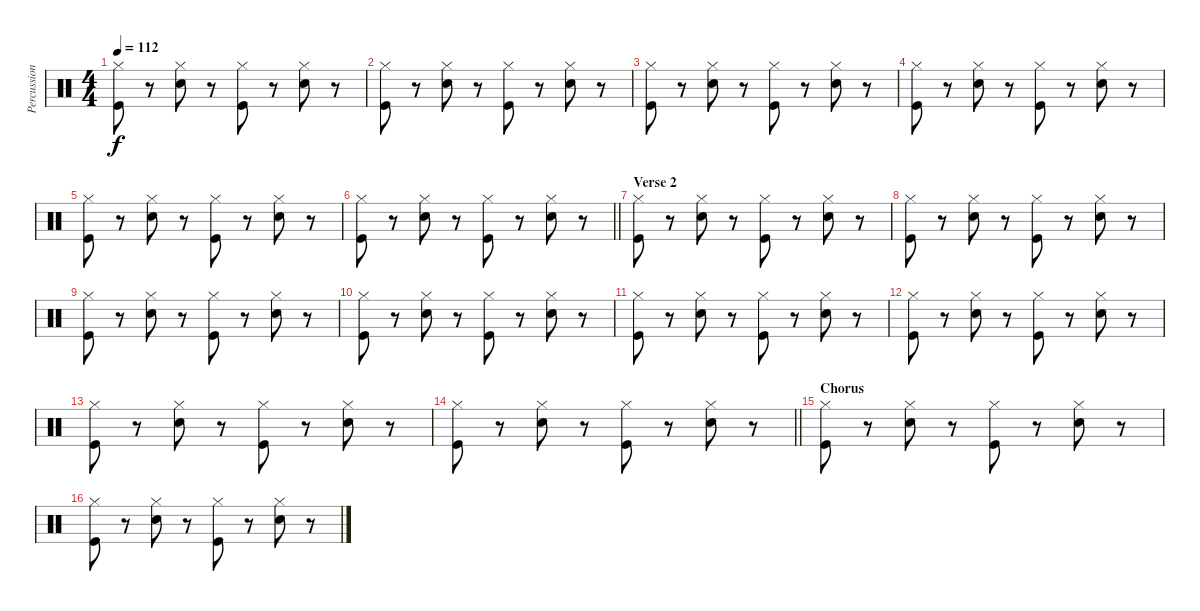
\track ("Percussion" "Percussion") {instrument percussion}
\staff
\articulation defaults
\ts (4 4)
\tempo 112
\clef neutral
\ks c
("Kick (hit)" "Hi-Hat (closed)").8{dy f} r.8 ("Electric Snare (hit)" "Hi-Hat (closed)").8 r.8 ("Kick (hit)" "Hi-Hat (closed)").8 r.8 ("Electric Snare (hit)" "Hi-Hat (closed)").8 r.8 |
("Kick (hit)" "Hi-Hat (closed)").8 r.8 ("Electric Snare (hit)" "Hi-Hat (closed)").8 r.8 ("Kick (hit)" "Hi-Hat (closed)").8 r.8 ("Electric Snare (hit)" "Hi-Hat (closed)").8 r.8 |
("Kick (hit)" "Hi-Hat (closed)").8 r.8 ("Electric Snare (hit)" "Hi-Hat (closed)").8 r.8 ("Kick (hit)" "Hi-Hat (closed)").8 r.8 ("Electric Snare (hit)" "Hi-Hat (closed)").8 r.8 |
("Kick (hit)" "Hi-Hat (closed)").8 r.8 ("Electric Snare (hit)" "Hi-Hat (closed)").8 r.8 ("Kick (hit)" "Hi-Hat (closed)").8 r.8 ("Electric Snare (hit)" "Hi-Hat (closed)").8 r.8 |
("Kick (hit)" "Hi-Hat (closed)").8 r.8 ("Electric Snare (hit)" "Hi-Hat (closed)").8 r.8 ("Kick (hit)" "Hi-Hat (closed)").8 r.8 ("Electric Snare (hit)" "Hi-Hat (closed)").8 r.8 |
\barLineRight lightlight
("Kick (hit)" "Hi-Hat (closed)").8 r.8 ("Electric Snare (hit)" "Hi-Hat (closed)").8 r.8 ("Kick (hit)" "Hi-Hat (closed)").8 r.8 ("Electric Snare (hit)" "Hi-Hat (closed)").8 r.8 |
\section ("" "Verse 2")
("Kick (hit)" "Hi-Hat (closed)").8 r.8 ("Electric Snare (hit)" "Hi-Hat (closed)").8 r.8 ("Kick (hit)" "Hi-Hat (closed)").8 r.8 ("Electric Snare (hit)" "Hi-Hat (closed)").8 r.8 |
("Kick (hit)" "Hi-Hat (closed)").8 r.8 ("Electric Snare (hit)" "Hi-Hat (closed)").8 r.8 ("Kick (hit)" "Hi-Hat (closed)").8 r.8 ("Electric Snare (hit)" "Hi-Hat (closed)").8 r.8 |
("Kick (hit)" "Hi-Hat (closed)").8 r.8 ("Electric Snare (hit)" "Hi-Hat (closed)").8 r.8 ("Kick (hit)" "Hi-Hat (closed)").8 r.8 ("Electric Snare (hit)" "Hi-Hat (closed)").8 r.8 |
("Kick (hit)" "Hi-Hat (closed)").8 r.8 ("Electric Snare (hit)" "Hi-Hat (closed)").8 r.8 ("Kick (hit)" "Hi-Hat (closed)").8 r.8 ("Electric Snare (hit)" "Hi-Hat (closed)").8 r.8 |
("Kick (hit)" "Hi-Hat (closed)").8 r.8 ("Electric Snare (hit)" "Hi-Hat (closed)").8 r.8 ("Kick (hit)" "Hi-Hat (closed)").8 r.8 ("Electric Snare (hit)" "Hi-Hat (closed)").8 r.8 |
("Kick (hit)" "Hi-Hat (closed)").8 r.8 ("Electric Snare (hit)" "Hi-Hat (closed)").8 r.8 ("Kick (hit)" "Hi-Hat (closed)").8 r.8 ("Electric Snare (hit)" "Hi-Hat (closed)").8 r.8 |
("Kick (hit)" "Hi-Hat (closed)").8 r.8 ("Electric Snare (hit)" "Hi-Hat (closed)").8 r.8 ("Kick (hit)" "Hi-Hat (closed)").8 r.8 ("Electric Snare (hit)" "Hi-Hat (closed)").8 r.8 |
\barLineRight lightlight
("Kick (hit)" "Hi-Hat (closed)").8 r.8 ("Electric Snare (hit)" "Hi-Hat (closed)").8 r.8 ("Kick (hit)" "Hi-Hat (closed)").8 r.8 ("Electric Snare (hit)" "Hi-Hat (closed)").8 r.8 |
\section ("" "Chorus")
("Kick (hit)" "Hi-Hat (closed)").8 r.8 ("Electric Snare (hit)" "Hi-Hat (closed)").8 r.8 ("Kick (hit)" "Hi-Hat (closed)").8 r.8 ("Electric Snare (hit)" "Hi-Hat (closed)").8 r.8 |
("Kick (hit)" "Hi-Hat (closed)").8 r.8 ("Electric Snare (hit)" "Hi-Hat (closed)").8 r.8 ("Kick (hit)" "Hi-Hat (closed)").8 r.8 ("Electric Snare (hit)" "Hi-Hat (closed)").8 r.8
